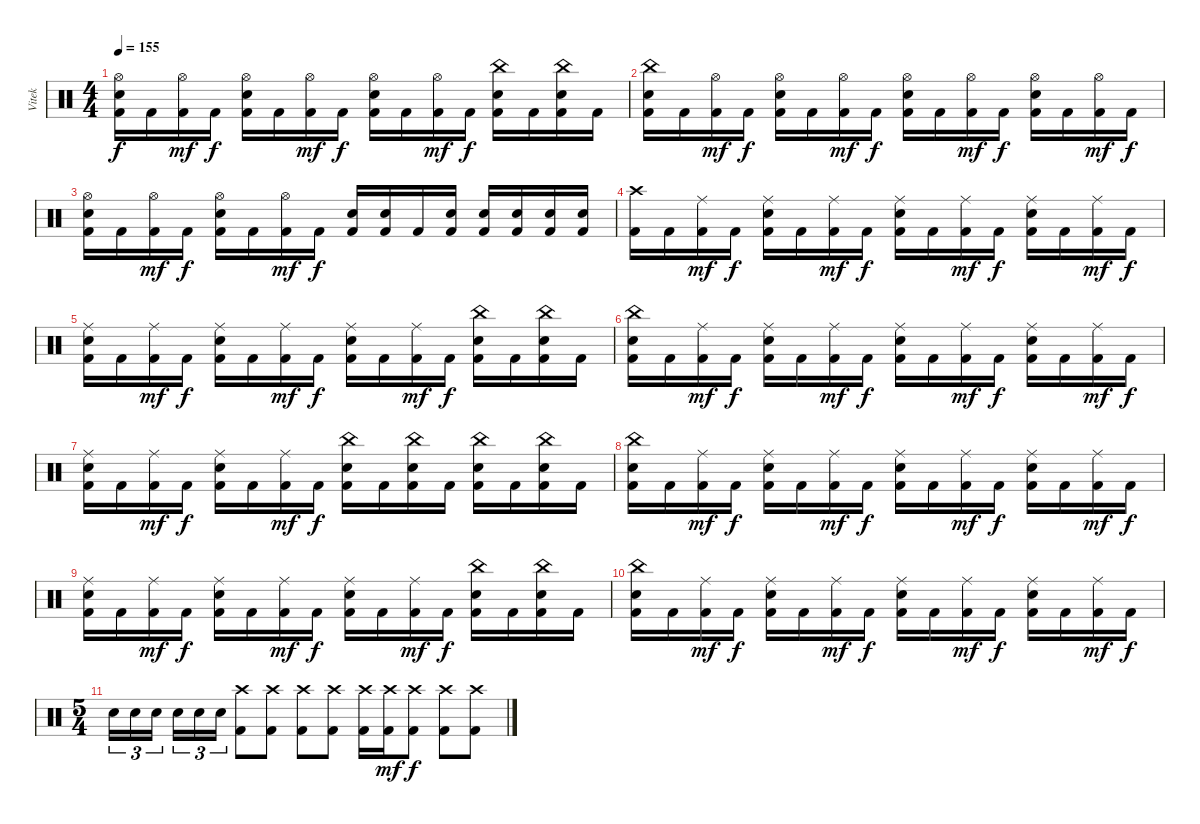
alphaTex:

\track ("Vitek" "Vitek") {instrument percussion}
\staff {score}
\articulation defaults
\ts (4 4)
\tempo 155
\clef neutral
\ks c
("Hi-Hat (open)" "Electric Snare (hit)" "Kick (hit) 2").16{dy f} "Kick (hit) 2".16 ("Hi-Hat (open)" "Kick (hit) 2").16{dy mf} "Kick (hit) 2".16{dy f} ("Hi-Hat (open)" "Electric Snare (hit)" "Kick (hit) 2").16 "Kick (hit) 2".16 ("Hi-Hat (open)" "Kick (hit) 2").16{dy mf} "Kick (hit) 2".16{dy f} ("Hi-Hat (open)" "Electric Snare (hit)" "Kick (hit) 2").16 "Kick (hit) 2".16 ("Hi-Hat (open)" "Kick (hit) 2").16{dy mf} "Kick (hit) 2".16{dy f} ("China (hit)" "Electric Snare (hit)" "Kick (hit) 2").16 "Kick (hit) 2".16 ("China (hit)" "Electric Snare (hit)" "Kick (hit) 2").16 "Kick (hit) 2".16 |
("China (hit)" "Electric Snare (hit)" "Kick (hit) 2").16 "Kick (hit) 2".16 ("Hi-Hat (open)" "Kick (hit) 2").16{dy mf} "Kick (hit) 2".16{dy f} ("Hi-Hat (open)" "Electric Snare (hit)" "Kick (hit) 2").16 "Kick (hit) 2".16 ("Hi-Hat (open)" "Kick (hit) 2").16{dy mf} "Kick (hit) 2".16{dy f} ("Hi-Hat (open)" "Electric Snare (hit)" "Kick (hit) 2").16 "Kick (hit) 2".16 ("Hi-Hat (open)" "Kick (hit) 2").16{dy mf} "Kick (hit) 2".16{dy f} ("Hi-Hat (open)" "Electric Snare (hit)" "Kick (hit) 2").16 "Kick (hit) 2".16 ("Hi-Hat (open)" "Kick (hit) 2").16{dy mf} "Kick (hit) 2".16{dy f} |
("Hi-Hat (open)" "Electric Snare (hit)" "Kick (hit) 2").16 "Kick (hit) 2".16 ("Hi-Hat (open)" "Kick (hit) 2").16{dy mf} "Kick (hit) 2".16{dy f} ("Hi-Hat (open)" "Electric Snare (hit)" "Kick (hit) 2").16 "Kick (hit) 2".16 ("Hi-Hat (open)" "Kick (hit) 2").16{dy mf} "Kick (hit) 2".16{dy f} ("Electric Snare (hit)" "Kick (hit) 2").16 ("Electric Snare (hit)" "Kick (hit) 2").16 "Kick (hit) 2".16 ("Electric Snare (hit)" "Kick (hit) 2").16 ("Electric Snare (hit)" "Kick (hit) 2").16 ("Electric Snare (hit)" "Kick (hit) 2").16 ("Electric Snare (hit)" "Kick (hit) 2").16 ("Electric Snare (hit)" "Kick (hit) 2").16 |
("Crash high (hit)" "Kick (hit) 2").16 "Kick (hit) 2".16 ("Ride (middle)" "Kick (hit) 2").16{dy mf} "Kick (hit) 2".16{dy f} ("Ride (middle)" "Electric Snare (hit)" "Kick (hit) 2").16 "Kick (hit) 2".16 ("Ride (middle)" "Kick (hit) 2").16{dy mf} "Kick (hit) 2".16{dy f} ("Ride (middle)" "Electric Snare (hit)" "Kick (hit) 2").16 "Kick (hit) 2".16 ("Ride (middle)" "Kick (hit) 2").16{dy mf} "Kick (hit) 2".16{dy f} ("Ride (middle)" "Electric Snare (hit)" "Kick (hit) 2").16 "Kick (hit) 2".16 ("Ride (middle)" "Kick (hit) 2").16{dy mf} "Kick (hit) 2".16{dy f} |
("Ride (middle)" "Electric Snare (hit)" "Kick (hit) 2").16 "Kick (hit) 2".16 ("Ride (middle)" "Kick (hit) 2").16{dy mf} "Kick (hit) 2".16{dy f} ("Ride (middle)" "Electric Snare (hit)" "Kick (hit) 2").16 "Kick (hit) 2".16 ("Ride (middle)" "Kick (hit) 2").16{dy mf} "Kick (hit) 2".16{dy f} ("Ride (middle)" "Electric Snare (hit)" "Kick (hit) 2").16 "Kick (hit) 2".16 ("Ride (middle)" "Kick (hit) 2").16{dy mf} "Kick (hit) 2".16{dy f} ("China (hit)" "Electric Snare (hit)" "Kick (hit) 2").16 "Kick (hit) 2".16 ("China (hit)" "Electric Snare (hit)" "Kick (hit) 2").16 "Kick (hit) 2".16 |
("China (hit)" "Electric Snare (hit)" "Kick (hit) 2").16 "Kick (hit) 2".16 ("Ride (middle)" "Kick (hit) 2").16{dy mf} "Kick (hit) 2".16{dy f} ("Ride (middle)" "Electric Snare (hit)" "Kick (hit) 2").16 "Kick (hit) 2".16 ("Ride (middle)" "Kick (hit) 2").16{dy mf} "Kick (hit) 2".16{dy f} ("Ride (middle)" "Electric Snare (hit)" "Kick (hit) 2").16 "Kick (hit) 2".16 ("Ride (middle)" "Kick (hit) 2").16{dy mf} "Kick (hit) 2".16{dy f} ("Ride (middle)" "Electric Snare (hit)" "Kick (hit) 2").16 "Kick (hit) 2".16 ("Ride (middle)" "Kick (hit) 2").16{dy mf} "Kick (hit) 2".16{dy f} |
("Ride (middle)" "Electric Snare (hit)" "Kick (hit) 2").16 "Kick (hit) 2".16 ("Ride (middle)" "Kick (hit) 2").16{dy mf} "Kick (hit) 2".16{dy f} ("Ride (middle)" "Electric Snare (hit)" "Kick (hit) 2").16 "Kick (hit) 2".16 ("Ride (middle)" "Kick (hit) 2").16{dy mf} "Kick (hit) 2".16{dy f} ("China (hit)" "Electric Snare (hit)" "Kick (hit) 2").16 "Kick (hit) 2".16 ("China (hit)" "Electric Snare (hit)" "Kick (hit) 2").16 "Kick (hit) 2".16 ("China (hit)" "Electric Snare (hit)" "Kick (hit) 2").16 "Kick (hit) 2".16 ("China (hit)" "Electric Snare (hit)" "Kick (hit) 2").16 "Kick (hit) 2".16 |
("China (hit)" "Electric Snare (hit)" "Kick (hit) 2").16 "Kick (hit) 2".16 ("Ride (middle)" "Kick (hit) 2").16{dy mf} "Kick (hit) 2".16{dy f} ("Ride (middle)" "Electric Snare (hit)" "Kick (hit) 2").16 "Kick (hit) 2".16 ("Ride (middle)" "Kick (hit) 2").16{dy mf} "Kick (hit) 2".16{dy f} ("Ride (middle)" "Electric Snare (hit)" "Kick (hit) 2").16 "Kick (hit) 2".16 ("Ride (middle)" "Kick (hit) 2").16{dy mf} "Kick (hit) 2".16{dy f} ("Ride (middle)" "Electric Snare (hit)" "Kick (hit) 2").16 "Kick (hit) 2".16 ("Ride (middle)" "Kick (hit) 2").16{dy mf} "Kick (hit) 2".16{dy f} |
("Ride (middle)" "Electric Snare (hit)" "Kick (hit) 2").16 "Kick (hit) 2".16 ("Ride (middle)" "Kick (hit) 2").16{dy mf} "Kick (hit) 2".16{dy f} ("Ride (middle)" "Electric Snare (hit)" "Kick (hit) 2").16 "Kick (hit) 2".16 ("Ride (middle)" "Kick (hit) 2").16{dy mf} "Kick (hit) 2".16{dy f} ("Ride (middle)" "Electric Snare (hit)" "Kick (hit) 2").16 "Kick (hit) 2".16 ("Ride (middle)" "Kick (hit) 2").16{dy mf} "Kick (hit) 2".16{dy f} ("China (hit)" "Electric Snare (hit)" "Kick (hit) 2").16 "Kick (hit) 2".16 ("China (hit)" "Electric Snare (hit)" "Kick (hit) 2").16 "Kick (hit) 2".16 |
("China (hit)" "Electric Snare (hit)" "Kick (hit) 2").16 "Kick (hit) 2".16 ("Ride (middle)" "Kick (hit) 2").16{dy mf} "Kick (hit) 2".16{dy f} ("Ride (middle)" "Electric Snare (hit)" "Kick (hit) 2").16 "Kick (hit) 2".16 ("Ride (middle)" "Kick (hit) 2").16{dy mf} "Kick (hit) 2".16{dy f} ("Ride (middle)" "Electric Snare (hit)" "Kick (hit) 2").16 "Kick (hit) 2".16 ("Ride (middle)" "Kick (hit) 2").16{dy mf} "Kick (hit) 2".16{dy f} ("Ride (middle)" "Electric Snare (hit)" "Kick (hit) 2").16 "Kick (hit) 2".16 ("Ride (middle)" "Kick (hit) 2").16{dy mf} "Kick (hit) 2".16{dy f} |
\ts (5 4)
"Electric Snare (hit)".16{tu (3 2)} "Electric Snare (hit)".16{tu (3 2)} "Electric Snare (hit)".16{tu (3 2) beam splitsecondary} "Electric Snare (hit)".16{tu (3 2)} "Electric Snare (hit)".16{tu (3 2)} "Electric Snare (hit)".16{tu (3 2)} ("Crash high (hit)" "Kick (hit) 2").8 ("Crash high (hit)" "Kick (hit) 2").8 ("Crash high (hit)" "Kick (hit) 2").8 ("Crash high (hit)" "Kick (hit) 2").8 ("Crash high (hit)" "Kick (hit) 2").16 ("Crash high (hit)" "Kick (hit) 2").16{dy mf} ("Crash high (hit)" "Kick (hit) 2").8{dy f} ("Crash high (hit)" "Kick (hit) 2").8 ("Crash high (hit)" "Kick (hit) 2").8
